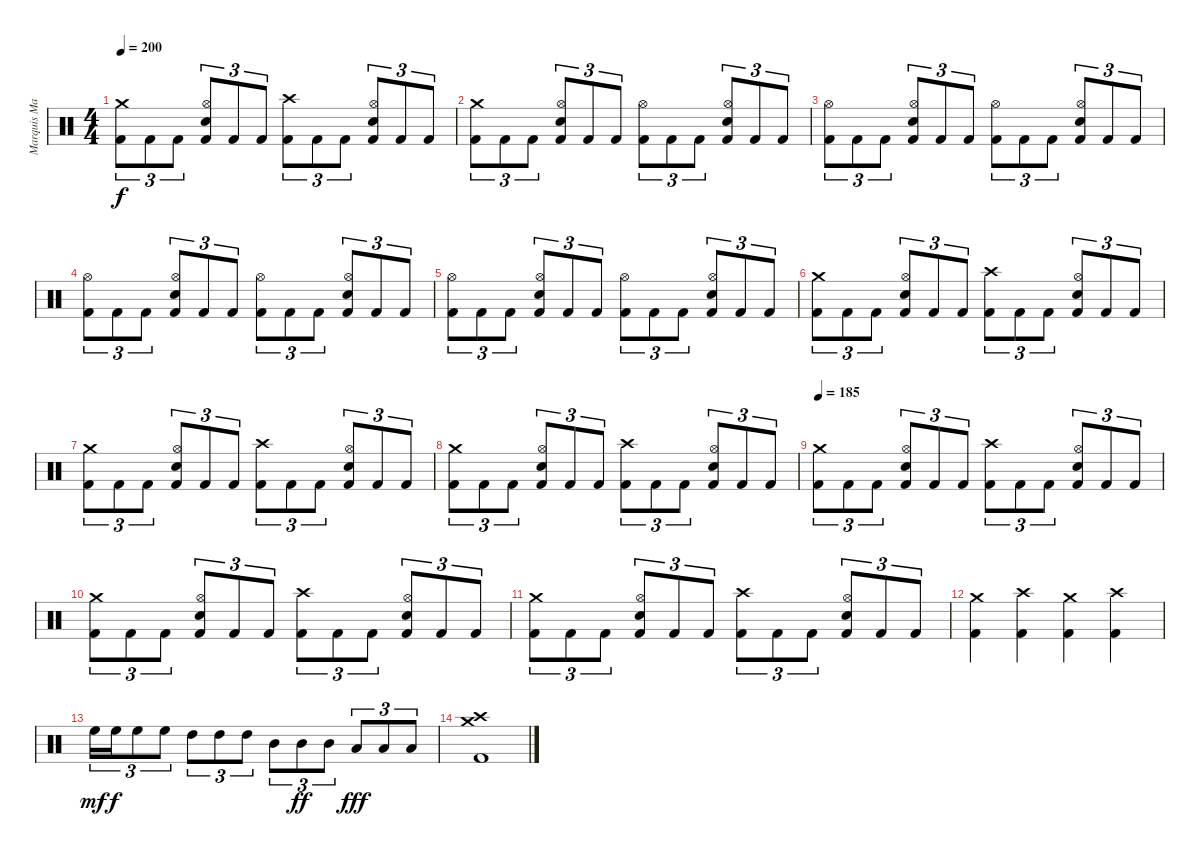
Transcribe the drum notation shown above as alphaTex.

\track ("Marquis Marky (DRUMS)" "Marquis Ma") {instrument percussion}
\staff {score}
\articulation defaults
\ts (4 4)
\tempo 200
\clef neutral
\ks c
("Crash medium (hit)" "Kick (hit) 2").8{tu (3 2) dy f} "Kick (hit) 2".8{tu (3 2)} "Kick (hit) 2".8{tu (3 2)} ("Hi-Hat (open)" "Snare (hit) 2" "Kick (hit) 2").8{tu (3 2)} "Kick (hit) 2".8{tu (3 2)} "Kick (hit) 2".8{tu (3 2)} ("Crash high (hit)" "Kick (hit) 2").8{tu (3 2)} "Kick (hit) 2".8{tu (3 2)} "Kick (hit) 2".8{tu (3 2)} ("Hi-Hat (open)" "Snare (hit) 2" "Kick (hit) 2").8{tu (3 2)} "Kick (hit) 2".8{tu (3 2)} "Kick (hit) 2".8{tu (3 2)} |
("Crash medium (hit)" "Kick (hit) 2").8{tu (3 2)} "Kick (hit) 2".8{tu (3 2)} "Kick (hit) 2".8{tu (3 2)} ("Hi-Hat (open)" "Snare (hit) 2" "Kick (hit) 2").8{tu (3 2)} "Kick (hit) 2".8{tu (3 2)} "Kick (hit) 2".8{tu (3 2)} ("Hi-Hat (open)" "Kick (hit) 2").8{tu (3 2)} "Kick (hit) 2".8{tu (3 2)} "Kick (hit) 2".8{tu (3 2)} ("Hi-Hat (open)" "Snare (hit) 2" "Kick (hit) 2").8{tu (3 2)} "Kick (hit) 2".8{tu (3 2)} "Kick (hit) 2".8{tu (3 2)} |
("Hi-Hat (open)" "Kick (hit) 2").8{tu (3 2)} "Kick (hit) 2".8{tu (3 2)} "Kick (hit) 2".8{tu (3 2)} ("Hi-Hat (open)" "Snare (hit) 2" "Kick (hit) 2").8{tu (3 2)} "Kick (hit) 2".8{tu (3 2)} "Kick (hit) 2".8{tu (3 2)} ("Hi-Hat (open)" "Kick (hit) 2").8{tu (3 2)} "Kick (hit) 2".8{tu (3 2)} "Kick (hit) 2".8{tu (3 2)} ("Hi-Hat (open)" "Snare (hit) 2" "Kick (hit) 2").8{tu (3 2)} "Kick (hit) 2".8{tu (3 2)} "Kick (hit) 2".8{tu (3 2)} |
("Hi-Hat (open)" "Kick (hit) 2").8{tu (3 2)} "Kick (hit) 2".8{tu (3 2)} "Kick (hit) 2".8{tu (3 2)} ("Hi-Hat (open)" "Snare (hit) 2" "Kick (hit) 2").8{tu (3 2)} "Kick (hit) 2".8{tu (3 2)} "Kick (hit) 2".8{tu (3 2)} ("Hi-Hat (open)" "Kick (hit) 2").8{tu (3 2)} "Kick (hit) 2".8{tu (3 2)} "Kick (hit) 2".8{tu (3 2)} ("Hi-Hat (open)" "Snare (hit) 2" "Kick (hit) 2").8{tu (3 2)} "Kick (hit) 2".8{tu (3 2)} "Kick (hit) 2".8{tu (3 2)} |
("Hi-Hat (open)" "Kick (hit) 2").8{tu (3 2)} "Kick (hit) 2".8{tu (3 2)} "Kick (hit) 2".8{tu (3 2)} ("Hi-Hat (open)" "Snare (hit) 2" "Kick (hit) 2").8{tu (3 2)} "Kick (hit) 2".8{tu (3 2)} "Kick (hit) 2".8{tu (3 2)} ("Hi-Hat (open)" "Kick (hit) 2").8{tu (3 2)} "Kick (hit) 2".8{tu (3 2)} "Kick (hit) 2".8{tu (3 2)} ("Hi-Hat (open)" "Snare (hit) 2" "Kick (hit) 2").8{tu (3 2)} "Kick (hit) 2".8{tu (3 2)} "Kick (hit) 2".8{tu (3 2)} |
("Crash medium (hit)" "Kick (hit) 2").8{tu (3 2)} "Kick (hit) 2".8{tu (3 2)} "Kick (hit) 2".8{tu (3 2)} ("Hi-Hat (open)" "Snare (hit) 2" "Kick (hit) 2").8{tu (3 2)} "Kick (hit) 2".8{tu (3 2)} "Kick (hit) 2".8{tu (3 2)} ("Crash high (hit)" "Kick (hit) 2").8{tu (3 2)} "Kick (hit) 2".8{tu (3 2)} "Kick (hit) 2".8{tu (3 2)} ("Hi-Hat (open)" "Snare (hit) 2" "Kick (hit) 2").8{tu (3 2)} "Kick (hit) 2".8{tu (3 2)} "Kick (hit) 2".8{tu (3 2)} |
("Crash medium (hit)" "Kick (hit) 2").8{tu (3 2)} "Kick (hit) 2".8{tu (3 2)} "Kick (hit) 2".8{tu (3 2)} ("Hi-Hat (open)" "Snare (hit) 2" "Kick (hit) 2").8{tu (3 2)} "Kick (hit) 2".8{tu (3 2)} "Kick (hit) 2".8{tu (3 2)} ("Crash high (hit)" "Kick (hit) 2").8{tu (3 2)} "Kick (hit) 2".8{tu (3 2)} "Kick (hit) 2".8{tu (3 2)} ("Hi-Hat (open)" "Snare (hit) 2" "Kick (hit) 2").8{tu (3 2)} "Kick (hit) 2".8{tu (3 2)} "Kick (hit) 2".8{tu (3 2)} |
("Crash medium (hit)" "Kick (hit) 2").8{tu (3 2)} "Kick (hit) 2".8{tu (3 2)} "Kick (hit) 2".8{tu (3 2)} ("Hi-Hat (open)" "Snare (hit) 2" "Kick (hit) 2").8{tu (3 2)} "Kick (hit) 2".8{tu (3 2)} "Kick (hit) 2".8{tu (3 2)} ("Crash high (hit)" "Kick (hit) 2").8{tu (3 2)} "Kick (hit) 2".8{tu (3 2)} "Kick (hit) 2".8{tu (3 2)} ("Hi-Hat (open)" "Snare (hit) 2" "Kick (hit) 2").8{tu (3 2)} "Kick (hit) 2".8{tu (3 2)} "Kick (hit) 2".8{tu (3 2)} |
\tempo 185
("Crash medium (hit)" "Kick (hit) 2").8{tu (3 2)} "Kick (hit) 2".8{tu (3 2)} "Kick (hit) 2".8{tu (3 2)} ("Hi-Hat (open)" "Snare (hit) 2" "Kick (hit) 2").8{tu (3 2)} "Kick (hit) 2".8{tu (3 2)} "Kick (hit) 2".8{tu (3 2)} ("Crash high (hit)" "Kick (hit) 2").8{tu (3 2)} "Kick (hit) 2".8{tu (3 2)} "Kick (hit) 2".8{tu (3 2)} ("Hi-Hat (open)" "Snare (hit) 2" "Kick (hit) 2").8{tu (3 2)} "Kick (hit) 2".8{tu (3 2)} "Kick (hit) 2".8{tu (3 2)} |
("Crash medium (hit)" "Kick (hit) 2").8{tu (3 2)} "Kick (hit) 2".8{tu (3 2)} "Kick (hit) 2".8{tu (3 2)} ("Hi-Hat (open)" "Snare (hit) 2" "Kick (hit) 2").8{tu (3 2)} "Kick (hit) 2".8{tu (3 2)} "Kick (hit) 2".8{tu (3 2)} ("Crash high (hit)" "Kick (hit) 2").8{tu (3 2)} "Kick (hit) 2".8{tu (3 2)} "Kick (hit) 2".8{tu (3 2)} ("Hi-Hat (open)" "Snare (hit) 2" "Kick (hit) 2").8{tu (3 2)} "Kick (hit) 2".8{tu (3 2)} "Kick (hit) 2".8{tu (3 2)} |
("Crash medium (hit)" "Kick (hit) 2").8{tu (3 2)} "Kick (hit) 2".8{tu (3 2)} "Kick (hit) 2".8{tu (3 2)} ("Hi-Hat (open)" "Snare (hit) 2" "Kick (hit) 2").8{tu (3 2)} "Kick (hit) 2".8{tu (3 2)} "Kick (hit) 2".8{tu (3 2)} ("Crash high (hit)" "Kick (hit) 2").8{tu (3 2)} "Kick (hit) 2".8{tu (3 2)} "Kick (hit) 2".8{tu (3 2)} ("Hi-Hat (open)" "Snare (hit) 2" "Kick (hit) 2").8{tu (3 2)} "Kick (hit) 2".8{tu (3 2)} "Kick (hit) 2".8{tu (3 2)} |
("Crash medium (hit)" "Kick (hit) 2").4 ("Crash high (hit)" "Kick (hit) 2").4 ("Crash medium (hit)" "Kick (hit) 2").4 ("Crash high (hit)" "Kick (hit) 2").4 |
"High Floor Tom (hit)".16{tu (3 2) dy mf} "High Floor Tom (hit)".16{tu (3 2) dy f} "High Floor Tom (hit)".8{tu (3 2)} "High Floor Tom (hit)".8{tu (3 2)} "High Tom (hit)".8{tu (3 2)} "High Tom (hit)".8{tu (3 2)} "High Tom (hit)".8{tu (3 2)} "Mid Tom (hit)".8{tu (3 2)} "Mid Tom (hit)".8{tu (3 2) dy ff} "Mid Tom (hit)".8{tu (3 2)} "Low Tom (hit)".8{tu (3 2) dy fff} "Low Tom (hit)".8{tu (3 2)} "Low Tom (hit)".8{tu (3 2)} |
("Crash medium (hit)" "Crash high (hit)" "Kick (hit) 2").1
